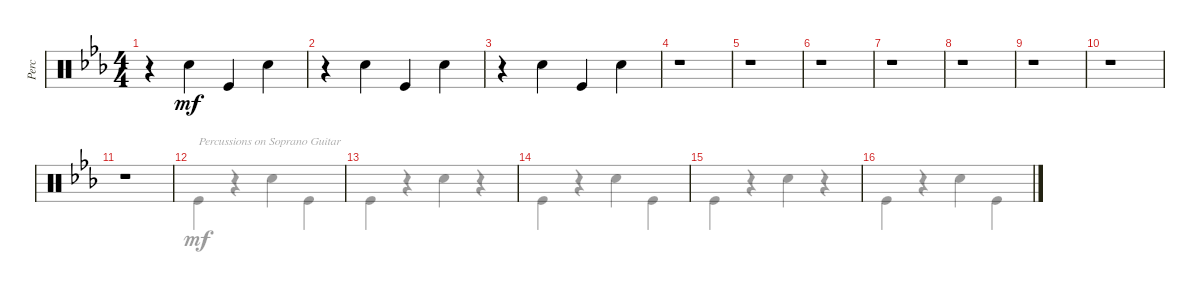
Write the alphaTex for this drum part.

\defaultSystemsLayout 4
\bracketExtendMode groupsimilarinstruments
\otherSystemsTrackNameOrientation horizontal
\track ("Percussions" "Perc") {instrument percussion}
\staff {score}
\articulation defaults
\voice
\ts (4 4)
\tempo (140 hide)
\clef neutral
\ks cminor
r.4{dy mf} "Snare (hit) 2".4 "Kick (hit)".4 "Snare (hit) 2".4 |
r.4 "Snare (hit) 2".4 "Kick (hit)".4 "Snare (hit) 2".4 |
r.4 "Snare (hit) 2".4 "Kick (hit)".4 "Snare (hit) 2".4 |
r.1 |
r.1 |
r.1 |
r.1 |
r.1 |
r.1 |
r.1 |
r.1 |
|
|
|
|
\voice
\clef neutral
\ottava regular
\simile none
\ks cminor
|
|
|
|
|
|
|
|
|
|
|
"Kick (hit)".4{txt "Percussions on Soprano Guitar"} r.4 "Snare (hit) 2".4 "Kick (hit)".4 |
"Kick (hit)".4 r.4 "Snare (hit) 2".4 r.4 |
"Kick (hit)".4 r.4 "Snare (hit) 2".4 "Kick (hit)".4 |
"Kick (hit)".4 r.4 "Snare (hit) 2".4 r.4 |
"Kick (hit)".4 r.4 "Snare (hit) 2".4 "Kick (hit)".4
